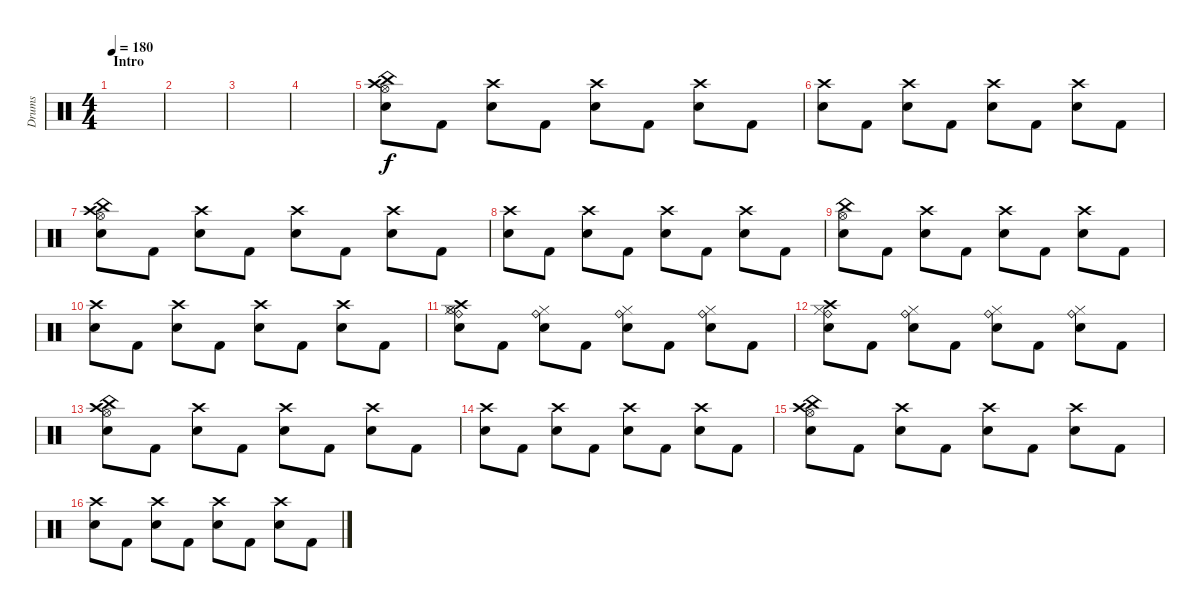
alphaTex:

\track ("Drums" "Drums") {instrument percussion}
\staff {score}
\articulation defaults
\ts (4 4)
\section ("" "Intro")
\tempo 180
\clef neutral
\ks c
|
|
|
|
("China (hit)" "Hi-Hat (open)" "Crash high (hit)" "Snare (hit) 2").8 "Kick (hit) 2".8 ("Crash high (hit)" "Snare (hit) 2").8 "Kick (hit) 2".8 ("Crash high (hit)" "Snare (hit) 2").8 "Kick (hit) 2".8 ("Crash high (hit)" "Snare (hit) 2").8 "Kick (hit) 2".8 |
("Crash high (hit)" "Snare (hit) 2").8 "Kick (hit) 2".8 ("Crash high (hit)" "Snare (hit) 2").8 "Kick (hit) 2".8 ("Crash high (hit)" "Snare (hit) 2").8 "Kick (hit) 2".8 ("Crash high (hit)" "Snare (hit) 2").8 "Kick (hit) 2".8 |
("China (hit)" "Hi-Hat (open)" "Crash high (hit)" "Snare (hit) 2").8 "Kick (hit) 2".8 ("Crash high (hit)" "Snare (hit) 2").8 "Kick (hit) 2".8 ("Crash high (hit)" "Snare (hit) 2").8 "Kick (hit) 2".8 ("Crash high (hit)" "Snare (hit) 2").8 "Kick (hit) 2".8 |
("Crash high (hit)" "Snare (hit) 2").8 "Kick (hit) 2".8 ("Crash high (hit)" "Snare (hit) 2").8 "Kick (hit) 2".8 ("Crash high (hit)" "Snare (hit) 2").8 "Kick (hit) 2".8 ("Crash high (hit)" "Snare (hit) 2").8 "Kick (hit) 2".8 |
("China (hit)" "Hi-Hat (open)" "Snare (hit) 2").8 "Kick (hit) 2".8 ("Crash high (hit)" "Snare (hit) 2").8 "Kick (hit) 2".8 ("Crash high (hit)" "Snare (hit) 2").8 "Kick (hit) 2".8 ("Crash high (hit)" "Snare (hit) 2").8 "Kick (hit) 2".8 |
("Crash high (hit)" "Snare (hit) 2").8 "Kick (hit) 2".8 ("Crash high (hit)" "Snare (hit) 2").8 "Kick (hit) 2".8 ("Crash high (hit)" "Snare (hit) 2").8 "Kick (hit) 2".8 ("Crash high (hit)" "Snare (hit) 2").8 "Kick (hit) 2".8 |
("Hi-Hat (open)" "Crash high (hit)" "Snare (hit) 2" "Hi-Hat (closed)" "Ride (bell)").8 "Kick (hit) 2".8 ("Snare (hit) 2" "Hi-Hat (closed)" "Ride (bell)").8 "Kick (hit) 2".8 ("Snare (hit) 2" "Hi-Hat (closed)" "Ride (bell)").8 "Kick (hit) 2".8 ("Snare (hit) 2" "Hi-Hat (closed)" "Ride (bell)").8 "Kick (hit) 2".8 |
("Crash high (hit)" "Snare (hit) 2" "Hi-Hat (closed)" "Ride (bell)").8 "Kick (hit) 2".8 ("Snare (hit) 2" "Hi-Hat (closed)" "Ride (bell)").8 "Kick (hit) 2".8 ("Snare (hit) 2" "Hi-Hat (closed)" "Ride (bell)").8 "Kick (hit) 2".8 ("Snare (hit) 2" "Hi-Hat (closed)" "Ride (bell)").8 "Kick (hit) 2".8 |
("Hi-Hat (open)" "China (hit)" "Crash high (hit)" "Snare (hit) 2").8 "Kick (hit) 2".8 ("Crash high (hit)" "Snare (hit) 2").8 "Kick (hit) 2".8 ("Crash high (hit)" "Snare (hit) 2").8 "Kick (hit) 2".8 ("Crash high (hit)" "Snare (hit) 2").8 "Kick (hit) 2".8 |
("Crash high (hit)" "Snare (hit) 2").8 "Kick (hit) 2".8 ("Crash high (hit)" "Snare (hit) 2").8 "Kick (hit) 2".8 ("Crash high (hit)" "Snare (hit) 2").8 "Kick (hit) 2".8 ("Crash high (hit)" "Snare (hit) 2").8 "Kick (hit) 2".8 |
("Hi-Hat (open)" "China (hit)" "Crash high (hit)" "Snare (hit) 2").8 "Kick (hit) 2".8 ("Crash high (hit)" "Snare (hit) 2").8 "Kick (hit) 2".8 ("Crash high (hit)" "Snare (hit) 2").8 "Kick (hit) 2".8 ("Crash high (hit)" "Snare (hit) 2").8 "Kick (hit) 2".8 |
("Crash high (hit)" "Snare (hit) 2").8 "Kick (hit) 2".8 ("Crash high (hit)" "Snare (hit) 2").8 "Kick (hit) 2".8 ("Crash high (hit)" "Snare (hit) 2").8 "Kick (hit) 2".8 ("Crash high (hit)" "Snare (hit) 2").8 "Kick (hit) 2".8
